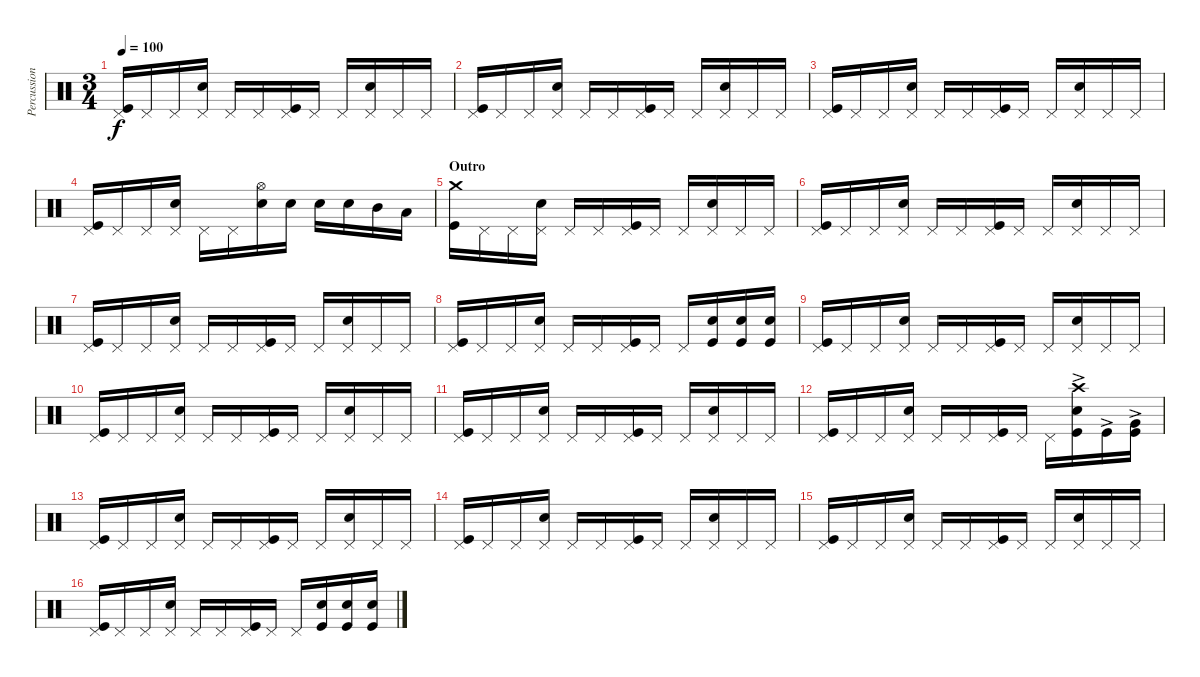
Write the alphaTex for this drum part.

\track ("Percussion" "Percussion") {instrument percussion}
\staff {score}
\articulation defaults
\ts (3 4)
\tempo 100
\clef neutral
\ks c
("Pedal Hi-Hat (hit)" "Kick (hit)").16{dy f} "Pedal Hi-Hat (hit)".16 "Pedal Hi-Hat (hit)".16 ("Pedal Hi-Hat (hit)" "Snare (hit) 2").16 "Pedal Hi-Hat (hit)".16 "Pedal Hi-Hat (hit)".16 ("Pedal Hi-Hat (hit)" "Kick (hit)").16 "Pedal Hi-Hat (hit)".16 "Pedal Hi-Hat (hit)".16 ("Pedal Hi-Hat (hit)" "Snare (hit) 2").16 "Pedal Hi-Hat (hit)".16 "Pedal Hi-Hat (hit)".16 |
("Pedal Hi-Hat (hit)" "Kick (hit)").16 "Pedal Hi-Hat (hit)".16 "Pedal Hi-Hat (hit)".16 ("Pedal Hi-Hat (hit)" "Snare (hit) 2").16 "Pedal Hi-Hat (hit)".16 "Pedal Hi-Hat (hit)".16 ("Pedal Hi-Hat (hit)" "Kick (hit)").16 "Pedal Hi-Hat (hit)".16 "Pedal Hi-Hat (hit)".16 ("Pedal Hi-Hat (hit)" "Snare (hit) 2").16 "Pedal Hi-Hat (hit)".16 "Pedal Hi-Hat (hit)".16 |
("Pedal Hi-Hat (hit)" "Kick (hit)").16 "Pedal Hi-Hat (hit)".16 "Pedal Hi-Hat (hit)".16 ("Pedal Hi-Hat (hit)" "Snare (hit) 2").16 "Pedal Hi-Hat (hit)".16 "Pedal Hi-Hat (hit)".16 ("Pedal Hi-Hat (hit)" "Kick (hit)").16 "Pedal Hi-Hat (hit)".16 "Pedal Hi-Hat (hit)".16 ("Pedal Hi-Hat (hit)" "Snare (hit) 2").16 "Pedal Hi-Hat (hit)".16 "Pedal Hi-Hat (hit)".16 |
("Pedal Hi-Hat (hit)" "Kick (hit)").16 "Pedal Hi-Hat (hit)".16 "Pedal Hi-Hat (hit)".16 ("Pedal Hi-Hat (hit)" "Snare (hit) 2").16 "Pedal Hi-Hat (hit)".16 "Pedal Hi-Hat (hit)".16 ("Hi-Hat (open)" "Snare (hit) 2").16 "Snare (hit) 2".16 "Snare (hit) 2".16 "Snare (hit) 2".16 "Mid Tom (hit)".16 "Low Tom (hit)".16 |
\section ("" "Outro")
("Crash medium (hit)" "Kick (hit)").16{balance 8} "Pedal Hi-Hat (hit)".16 "Pedal Hi-Hat (hit)".16 ("Pedal Hi-Hat (hit)" "Snare (hit) 2").16 "Pedal Hi-Hat (hit)".16 "Pedal Hi-Hat (hit)".16 ("Pedal Hi-Hat (hit)" "Kick (hit)").16 "Pedal Hi-Hat (hit)".16 "Pedal Hi-Hat (hit)".16 ("Pedal Hi-Hat (hit)" "Snare (hit) 2").16 "Pedal Hi-Hat (hit)".16 "Pedal Hi-Hat (hit)".16 |
("Pedal Hi-Hat (hit)" "Kick (hit)").16 "Pedal Hi-Hat (hit)".16 "Pedal Hi-Hat (hit)".16 ("Pedal Hi-Hat (hit)" "Snare (hit) 2").16 "Pedal Hi-Hat (hit)".16 "Pedal Hi-Hat (hit)".16 ("Pedal Hi-Hat (hit)" "Kick (hit)").16 "Pedal Hi-Hat (hit)".16 "Pedal Hi-Hat (hit)".16 ("Pedal Hi-Hat (hit)" "Snare (hit) 2").16 "Pedal Hi-Hat (hit)".16 "Pedal Hi-Hat (hit)".16 |
("Pedal Hi-Hat (hit)" "Kick (hit)").16 "Pedal Hi-Hat (hit)".16 "Pedal Hi-Hat (hit)".16 ("Pedal Hi-Hat (hit)" "Snare (hit) 2").16 "Pedal Hi-Hat (hit)".16 "Pedal Hi-Hat (hit)".16 ("Pedal Hi-Hat (hit)" "Kick (hit)").16 "Pedal Hi-Hat (hit)".16 "Pedal Hi-Hat (hit)".16 ("Pedal Hi-Hat (hit)" "Snare (hit) 2").16 "Pedal Hi-Hat (hit)".16 "Pedal Hi-Hat (hit)".16 |
("Pedal Hi-Hat (hit)" "Kick (hit)").16 "Pedal Hi-Hat (hit)".16 "Pedal Hi-Hat (hit)".16 ("Pedal Hi-Hat (hit)" "Snare (hit) 2").16 "Pedal Hi-Hat (hit)".16 "Pedal Hi-Hat (hit)".16 ("Pedal Hi-Hat (hit)" "Kick (hit)").16 "Pedal Hi-Hat (hit)".16 "Pedal Hi-Hat (hit)".16 ("Snare (hit) 2" "Kick (hit)").16 ("Snare (hit) 2" "Kick (hit)").16 ("Snare (hit) 2" "Kick (hit)").16 |
("Pedal Hi-Hat (hit)" "Kick (hit)").16 "Pedal Hi-Hat (hit)".16 "Pedal Hi-Hat (hit)".16 ("Pedal Hi-Hat (hit)" "Snare (hit) 2").16 "Pedal Hi-Hat (hit)".16 "Pedal Hi-Hat (hit)".16 ("Pedal Hi-Hat (hit)" "Kick (hit)").16 "Pedal Hi-Hat (hit)".16 "Pedal Hi-Hat (hit)".16 ("Pedal Hi-Hat (hit)" "Snare (hit) 2").16 "Pedal Hi-Hat (hit)".16 "Pedal Hi-Hat (hit)".16 |
("Pedal Hi-Hat (hit)" "Kick (hit)").16 "Pedal Hi-Hat (hit)".16 "Pedal Hi-Hat (hit)".16 ("Pedal Hi-Hat (hit)" "Snare (hit) 2").16 "Pedal Hi-Hat (hit)".16 "Pedal Hi-Hat (hit)".16 ("Pedal Hi-Hat (hit)" "Kick (hit)").16 "Pedal Hi-Hat (hit)".16 "Pedal Hi-Hat (hit)".16 ("Pedal Hi-Hat (hit)" "Snare (hit) 2").16 "Pedal Hi-Hat (hit)".16 "Pedal Hi-Hat (hit)".16 |
("Pedal Hi-Hat (hit)" "Kick (hit)").16 "Pedal Hi-Hat (hit)".16 "Pedal Hi-Hat (hit)".16 ("Pedal Hi-Hat (hit)" "Snare (hit) 2").16 "Pedal Hi-Hat (hit)".16 "Pedal Hi-Hat (hit)".16 ("Pedal Hi-Hat (hit)" "Kick (hit)").16 "Pedal Hi-Hat (hit)".16 "Pedal Hi-Hat (hit)".16 ("Pedal Hi-Hat (hit)" "Snare (hit) 2").16 "Pedal Hi-Hat (hit)".16 "Pedal Hi-Hat (hit)".16 |
("Pedal Hi-Hat (hit)" "Kick (hit)").16 "Pedal Hi-Hat (hit)".16 "Pedal Hi-Hat (hit)".16 ("Pedal Hi-Hat (hit)" "Snare (hit) 2").16 "Pedal Hi-Hat (hit)".16 "Pedal Hi-Hat (hit)".16 ("Pedal Hi-Hat (hit)" "Kick (hit)").16 "Pedal Hi-Hat (hit)".16 "Pedal Hi-Hat (hit)".16 ("Crash high (hit)" "Snare (hit) 2"{ac} "Kick (hit)").16 "Kick (hit)"{ac}.16 ("Very Low Tom (hit)"{ac} "Kick (hit)").16 |
("Pedal Hi-Hat (hit)" "Kick (hit)").16{balance 8} "Pedal Hi-Hat (hit)".16 "Pedal Hi-Hat (hit)".16 ("Pedal Hi-Hat (hit)" "Snare (hit) 2").16 "Pedal Hi-Hat (hit)".16 "Pedal Hi-Hat (hit)".16 ("Pedal Hi-Hat (hit)" "Kick (hit)").16 "Pedal Hi-Hat (hit)".16 "Pedal Hi-Hat (hit)".16 ("Pedal Hi-Hat (hit)" "Snare (hit) 2").16 "Pedal Hi-Hat (hit)".16 "Pedal Hi-Hat (hit)".16 |
("Pedal Hi-Hat (hit)" "Kick (hit)").16 "Pedal Hi-Hat (hit)".16 "Pedal Hi-Hat (hit)".16 ("Pedal Hi-Hat (hit)" "Snare (hit) 2").16 "Pedal Hi-Hat (hit)".16 "Pedal Hi-Hat (hit)".16 ("Pedal Hi-Hat (hit)" "Kick (hit)").16 "Pedal Hi-Hat (hit)".16 "Pedal Hi-Hat (hit)".16 ("Pedal Hi-Hat (hit)" "Snare (hit) 2").16 "Pedal Hi-Hat (hit)".16 "Pedal Hi-Hat (hit)".16 |
("Pedal Hi-Hat (hit)" "Kick (hit)").16 "Pedal Hi-Hat (hit)".16 "Pedal Hi-Hat (hit)".16 ("Pedal Hi-Hat (hit)" "Snare (hit) 2").16 "Pedal Hi-Hat (hit)".16 "Pedal Hi-Hat (hit)".16 ("Pedal Hi-Hat (hit)" "Kick (hit)").16 "Pedal Hi-Hat (hit)".16 "Pedal Hi-Hat (hit)".16 ("Pedal Hi-Hat (hit)" "Snare (hit) 2").16 "Pedal Hi-Hat (hit)".16 "Pedal Hi-Hat (hit)".16 |
("Pedal Hi-Hat (hit)" "Kick (hit)").16 "Pedal Hi-Hat (hit)".16 "Pedal Hi-Hat (hit)".16 ("Pedal Hi-Hat (hit)" "Snare (hit) 2").16 "Pedal Hi-Hat (hit)".16 "Pedal Hi-Hat (hit)".16 ("Pedal Hi-Hat (hit)" "Kick (hit)").16 "Pedal Hi-Hat (hit)".16 "Pedal Hi-Hat (hit)".16 ("Snare (hit) 2" "Kick (hit)").16 ("Snare (hit) 2" "Kick (hit)").16 ("Snare (hit) 2" "Kick (hit)").16
